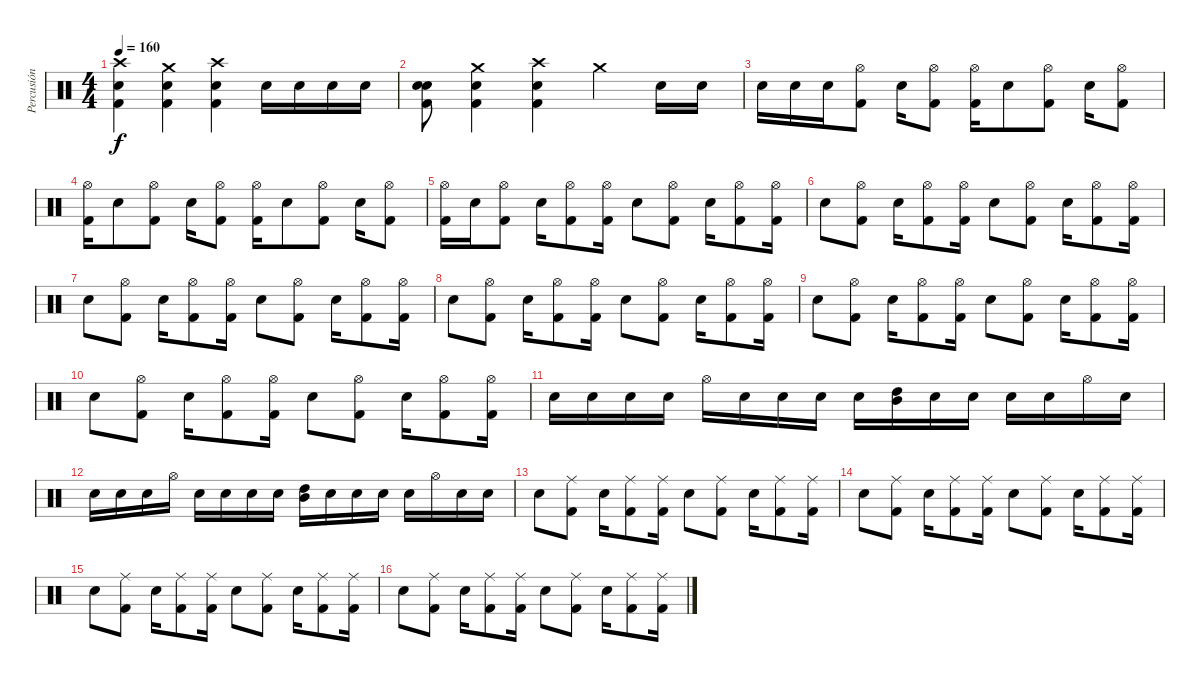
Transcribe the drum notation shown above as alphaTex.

\track ("Percusión" "Percusión") {instrument percussion}
\staff {score}
\articulation defaults
\ts (4 4)
\tempo 160
\clef neutral
\ks c
("Crash high (hit)" "Snare (hit) 2" "Kick (hit) 2").4{dy f} ("Crash medium (hit)" "Snare (hit) 2" "Kick (hit) 2").4 ("Crash high (hit)" "Snare (hit) 2" "Kick (hit) 2").4 "Electric Snare (hit)".16 "Electric Snare (hit)".16 "Electric Snare (hit)".16 "Electric Snare (hit)".16 |
("Electric Snare (hit)" "Snare (hit) 2" "Kick (hit) 2").8 ("Crash medium (hit)" "Snare (hit) 2" "Kick (hit) 2").4 ("Crash high (hit)" "Snare (hit) 2" "Kick (hit) 2").4 "Crash medium (hit)".4 "Electric Snare (hit)".16 "Electric Snare (hit)".16 |
"Electric Snare (hit)".16 "Electric Snare (hit)".16 "Electric Snare (hit)".16 ("Kick (hit) 2" "Hi-Hat (open)").8 "Snare (hit) 2".16 ("Kick (hit) 2" "Hi-Hat (open)").8 ("Kick (hit) 2" "Hi-Hat (open)").16 "Snare (hit) 2".8 ("Kick (hit) 2" "Hi-Hat (open)").8 "Snare (hit) 2".16 ("Kick (hit) 2" "Hi-Hat (open)").8 |
("Kick (hit) 2" "Hi-Hat (open)").16 "Snare (hit) 2".8 ("Kick (hit) 2" "Hi-Hat (open)").8 "Snare (hit) 2".16 ("Kick (hit) 2" "Hi-Hat (open)").8 ("Kick (hit) 2" "Hi-Hat (open)").16 "Snare (hit) 2".8 ("Kick (hit) 2" "Hi-Hat (open)").8 "Snare (hit) 2".16 ("Kick (hit) 2" "Hi-Hat (open)").8 |
("Kick (hit) 2" "Hi-Hat (open)").16 "Snare (hit) 2".16 ("Kick (hit) 2" "Hi-Hat (open)").8 "Snare (hit) 2".16 ("Kick (hit) 2" "Hi-Hat (open)").8 ("Kick (hit) 2" "Hi-Hat (open)").16 "Snare (hit) 2".8 ("Kick (hit) 2" "Hi-Hat (open)").8 "Snare (hit) 2".16 ("Kick (hit) 2" "Hi-Hat (open)").8 ("Kick (hit) 2" "Hi-Hat (open)").16 |
"Snare (hit) 2".8 ("Kick (hit) 2" "Hi-Hat (open)").8 "Snare (hit) 2".16 ("Kick (hit) 2" "Hi-Hat (open)").8 ("Kick (hit) 2" "Hi-Hat (open)").16 "Snare (hit) 2".8 ("Kick (hit) 2" "Hi-Hat (open)").8 "Snare (hit) 2".16 ("Kick (hit) 2" "Hi-Hat (open)").8 ("Kick (hit) 2" "Hi-Hat (open)").16 |
"Snare (hit) 2".8 ("Kick (hit) 2" "Hi-Hat (open)").8 "Snare (hit) 2".16 ("Kick (hit) 2" "Hi-Hat (open)").8 ("Kick (hit) 2" "Hi-Hat (open)").16 "Snare (hit) 2".8 ("Kick (hit) 2" "Hi-Hat (open)").8 "Snare (hit) 2".16 ("Kick (hit) 2" "Hi-Hat (open)").8 ("Kick (hit) 2" "Hi-Hat (open)").16 |
"Snare (hit) 2".8 ("Kick (hit) 2" "Hi-Hat (open)").8 "Snare (hit) 2".16 ("Kick (hit) 2" "Hi-Hat (open)").8 ("Kick (hit) 2" "Hi-Hat (open)").16 "Snare (hit) 2".8 ("Kick (hit) 2" "Hi-Hat (open)").8 "Snare (hit) 2".16 ("Kick (hit) 2" "Hi-Hat (open)").8 ("Kick (hit) 2" "Hi-Hat (open)").16 |
"Snare (hit) 2".8 ("Kick (hit) 2" "Hi-Hat (open)").8 "Snare (hit) 2".16 ("Kick (hit) 2" "Hi-Hat (open)").8 ("Kick (hit) 2" "Hi-Hat (open)").16 "Snare (hit) 2".8 ("Kick (hit) 2" "Hi-Hat (open)").8 "Snare (hit) 2".16 ("Kick (hit) 2" "Hi-Hat (open)").8 ("Kick (hit) 2" "Hi-Hat (open)").16 |
"Snare (hit) 2".8 ("Kick (hit) 2" "Hi-Hat (open)").8 "Snare (hit) 2".16 ("Kick (hit) 2" "Hi-Hat (open)").8 ("Kick (hit) 2" "Hi-Hat (open)").16 "Snare (hit) 2".8 ("Kick (hit) 2" "Hi-Hat (open)").8 "Snare (hit) 2".16 ("Kick (hit) 2" "Hi-Hat (open)").8 ("Kick (hit) 2" "Hi-Hat (open)").16 |
"Electric Snare (hit)".16 "Electric Snare (hit)".16 "Electric Snare (hit)".16 "Electric Snare (hit)".16 "Hi-Hat (open)".16 "Electric Snare (hit)".16 "Electric Snare (hit)".16 "Electric Snare (hit)".16 "Electric Snare (hit)".16 ("High Tom (hit)" "Mid Tom (hit)").16 "Electric Snare (hit)".16 "Electric Snare (hit)".16 "Electric Snare (hit)".16 "Electric Snare (hit)".16 "Hi-Hat (open)".16 "Electric Snare (hit)".16 |
"Electric Snare (hit)".16 "Electric Snare (hit)".16 "Electric Snare (hit)".16 "Hi-Hat (open)".16 "Electric Snare (hit)".16 "Electric Snare (hit)".16 "Electric Snare (hit)".16 "Electric Snare (hit)".16 ("High Tom (hit)" "Mid Tom (hit)").16 "Electric Snare (hit)".16 "Electric Snare (hit)".16 "Electric Snare (hit)".16 "Electric Snare (hit)".16 "Hi-Hat (open)".16 "Electric Snare (hit)".16 "Electric Snare (hit)".16 |
"Snare (hit) 2".8 ("Kick (hit) 2" "Ride (middle)").8 "Snare (hit) 2".16 ("Kick (hit) 2" "Ride (middle)").8 ("Kick (hit) 2" "Ride (middle)").16 "Snare (hit) 2".8 ("Kick (hit) 2" "Ride (middle)").8 "Snare (hit) 2".16 ("Kick (hit) 2" "Ride (middle)").8 ("Kick (hit) 2" "Ride (middle)").16 |
"Snare (hit) 2".8 ("Kick (hit) 2" "Ride (middle)").8 "Snare (hit) 2".16 ("Kick (hit) 2" "Ride (middle)").8 ("Kick (hit) 2" "Ride (middle)").16 "Snare (hit) 2".8 ("Kick (hit) 2" "Ride (middle)").8 "Snare (hit) 2".16 ("Kick (hit) 2" "Ride (middle)").8 ("Kick (hit) 2" "Ride (middle)").16 |
"Snare (hit) 2".8 ("Kick (hit) 2" "Ride (middle)").8 "Snare (hit) 2".16 ("Kick (hit) 2" "Ride (middle)").8 ("Kick (hit) 2" "Ride (middle)").16 "Snare (hit) 2".8 ("Kick (hit) 2" "Ride (middle)").8 "Snare (hit) 2".16 ("Kick (hit) 2" "Ride (middle)").8 ("Kick (hit) 2" "Ride (middle)").16 |
"Snare (hit) 2".8 ("Kick (hit) 2" "Ride (middle)").8 "Snare (hit) 2".16 ("Kick (hit) 2" "Ride (middle)").8 ("Kick (hit) 2" "Ride (middle)").16 "Snare (hit) 2".8 ("Kick (hit) 2" "Ride (middle)").8 "Snare (hit) 2".16 ("Kick (hit) 2" "Ride (middle)").8 ("Kick (hit) 2" "Ride (middle)").16
